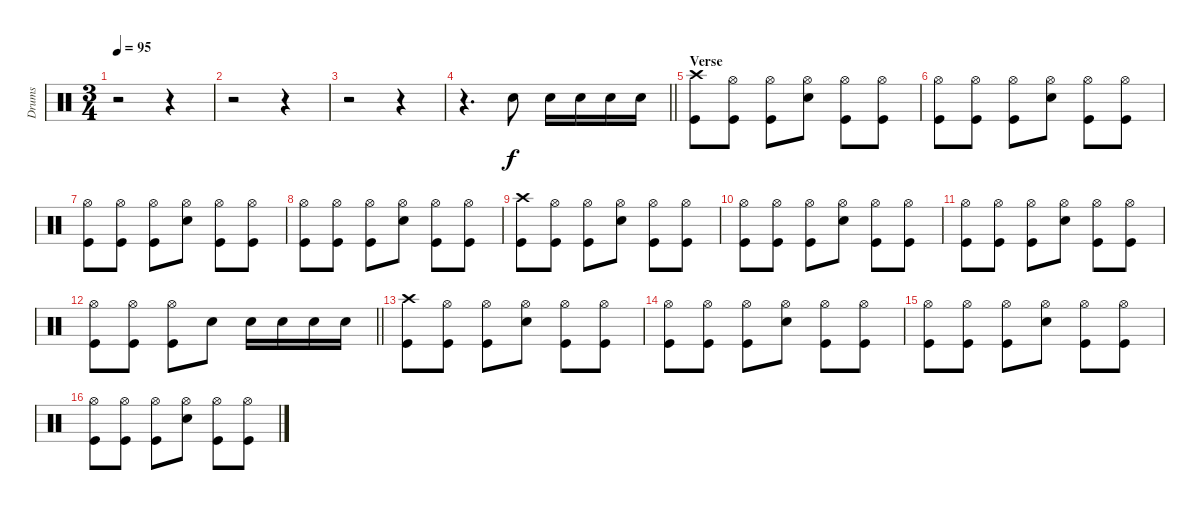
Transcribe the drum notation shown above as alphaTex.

\track ("Drums" "Drums") {instrument percussion}
\staff {score}
\articulation defaults
\ts (3 4)
\tempo 95
\clef neutral
\ks c
r.2{dy f} r.4 |
r.2 r.4 |
r.2 r.4 |
\barLineRight lightlight
r.4{d} "Electric Snare (hit)".8 "Electric Snare (hit)".16 "Electric Snare (hit)".16 "Electric Snare (hit)".16 "Electric Snare (hit)".16 |
\section ("" "Verse")
("Crash high (hit)" "Kick (hit)").8 ("Hi-Hat (open)" "Kick (hit)").8 ("Hi-Hat (open)" "Kick (hit)").8 ("Hi-Hat (open)" "Electric Snare (hit)").8 ("Hi-Hat (open)" "Kick (hit)").8 ("Hi-Hat (open)" "Kick (hit)").8 |
("Hi-Hat (open)" "Kick (hit)").8 ("Hi-Hat (open)" "Kick (hit)").8 ("Hi-Hat (open)" "Kick (hit)").8 ("Hi-Hat (open)" "Electric Snare (hit)").8 ("Hi-Hat (open)" "Kick (hit)").8 ("Hi-Hat (open)" "Kick (hit)").8 |
("Hi-Hat (open)" "Kick (hit)").8 ("Hi-Hat (open)" "Kick (hit)").8 ("Hi-Hat (open)" "Kick (hit)").8 ("Hi-Hat (open)" "Electric Snare (hit)").8 ("Hi-Hat (open)" "Kick (hit)").8 ("Hi-Hat (open)" "Kick (hit)").8 |
("Hi-Hat (open)" "Kick (hit)").8 ("Hi-Hat (open)" "Kick (hit)").8 ("Hi-Hat (open)" "Kick (hit)").8 ("Hi-Hat (open)" "Electric Snare (hit)").8 ("Hi-Hat (open)" "Kick (hit)").8 ("Hi-Hat (open)" "Kick (hit)").8 |
("Crash high (hit)" "Kick (hit)").8 ("Hi-Hat (open)" "Kick (hit)").8 ("Hi-Hat (open)" "Kick (hit)").8 ("Hi-Hat (open)" "Electric Snare (hit)").8 ("Hi-Hat (open)" "Kick (hit)").8 ("Hi-Hat (open)" "Kick (hit)").8 |
("Hi-Hat (open)" "Kick (hit)").8 ("Hi-Hat (open)" "Kick (hit)").8 ("Hi-Hat (open)" "Kick (hit)").8 ("Hi-Hat (open)" "Electric Snare (hit)").8 ("Hi-Hat (open)" "Kick (hit)").8 ("Hi-Hat (open)" "Kick (hit)").8 |
("Hi-Hat (open)" "Kick (hit)").8 ("Hi-Hat (open)" "Kick (hit)").8 ("Hi-Hat (open)" "Kick (hit)").8 ("Hi-Hat (open)" "Electric Snare (hit)").8 ("Hi-Hat (open)" "Kick (hit)").8 ("Hi-Hat (open)" "Kick (hit)").8 |
\barLineRight lightlight
("Hi-Hat (open)" "Kick (hit)").8 ("Hi-Hat (open)" "Kick (hit)").8 ("Hi-Hat (open)" "Kick (hit)").8 "Electric Snare (hit)".8 "Electric Snare (hit)".16 "Electric Snare (hit)".16 "Electric Snare (hit)".16 "Electric Snare (hit)".16 |
\section ("" "")
("Crash high (hit)" "Kick (hit)").8 ("Hi-Hat (open)" "Kick (hit)").8 ("Hi-Hat (open)" "Kick (hit)").8 ("Hi-Hat (open)" "Electric Snare (hit)").8 ("Hi-Hat (open)" "Kick (hit)").8 ("Hi-Hat (open)" "Kick (hit)").8 |
("Hi-Hat (open)" "Kick (hit)").8 ("Hi-Hat (open)" "Kick (hit)").8 ("Hi-Hat (open)" "Kick (hit)").8 ("Hi-Hat (open)" "Electric Snare (hit)").8 ("Hi-Hat (open)" "Kick (hit)").8 ("Hi-Hat (open)" "Kick (hit)").8 |
("Hi-Hat (open)" "Kick (hit)").8 ("Hi-Hat (open)" "Kick (hit)").8 ("Hi-Hat (open)" "Kick (hit)").8 ("Hi-Hat (open)" "Electric Snare (hit)").8 ("Hi-Hat (open)" "Kick (hit)").8 ("Hi-Hat (open)" "Kick (hit)").8 |
("Hi-Hat (open)" "Kick (hit)").8 ("Hi-Hat (open)" "Kick (hit)").8 ("Hi-Hat (open)" "Kick (hit)").8 ("Hi-Hat (open)" "Electric Snare (hit)").8 ("Hi-Hat (open)" "Kick (hit)").8 ("Hi-Hat (open)" "Kick (hit)").8
